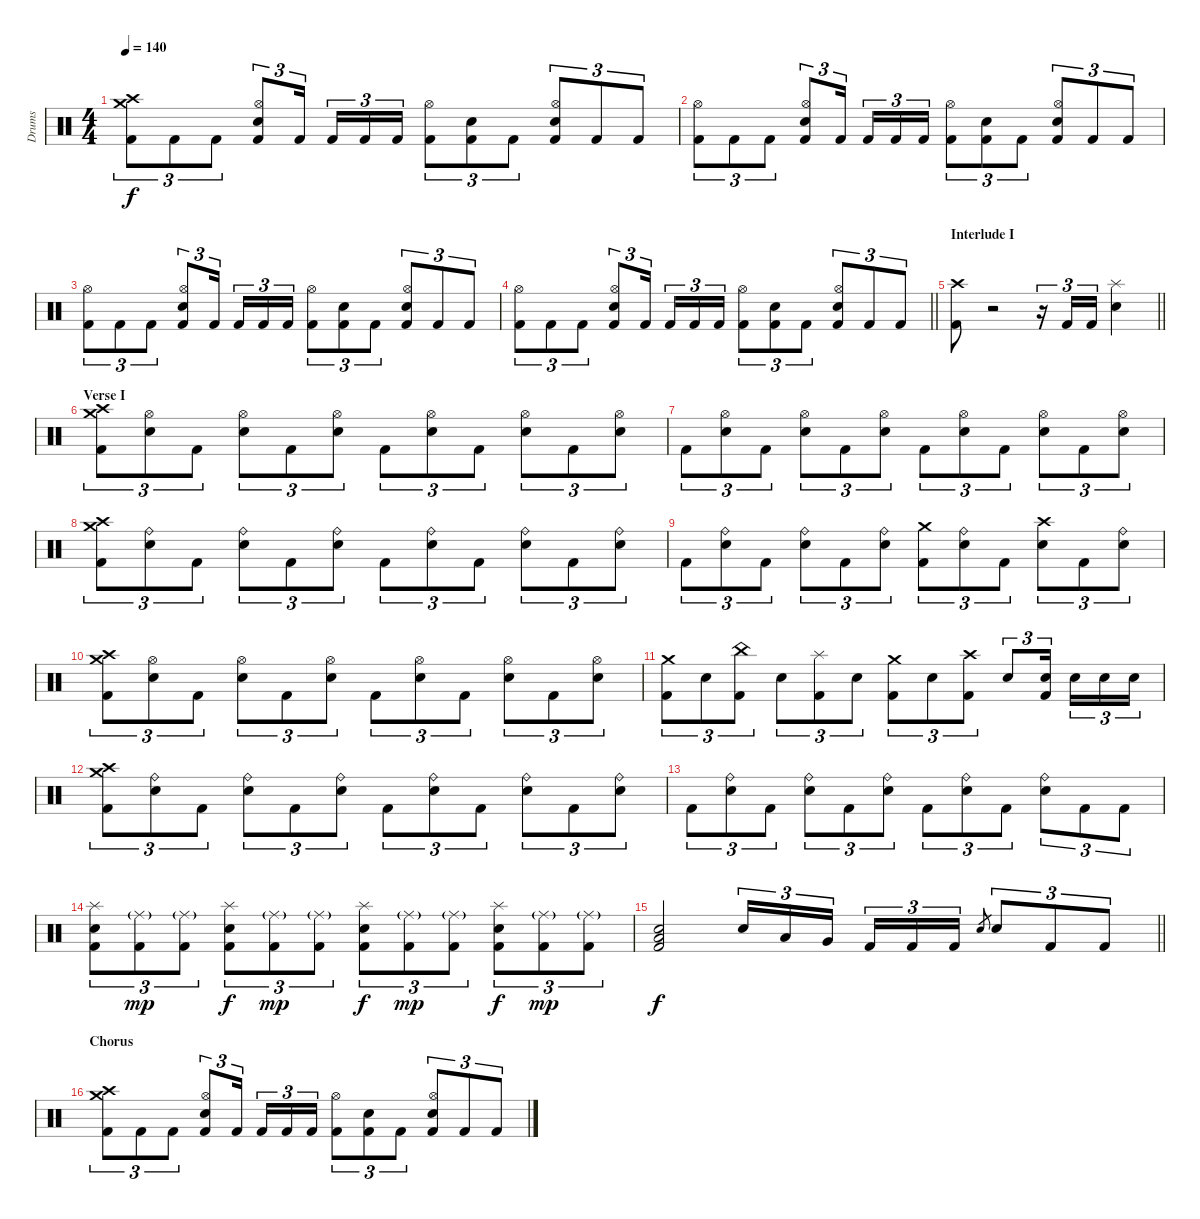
\track ("Drums" "Drums") {instrument percussion}
\staff {score}
\articulation defaults
\ts (4 4)
\tempo 140
\clef neutral
\ks c
("Crash medium (hit)" "Crash high (hit)" "Kick (hit) 2").8{tu (3 2) dy f} "Kick (hit) 2".8{tu (3 2)} "Kick (hit) 2".8{tu (3 2)} ("Hi-Hat (open)" "Electric Snare (hit)" "Kick (hit) 2").8{tu (3 2)} "Kick (hit) 2".16{tu (3 2) beam splitsecondary} "Kick (hit) 2".16{tu (3 2)} "Kick (hit) 2".16{tu (3 2)} "Kick (hit) 2".16{tu (3 2)} ("Hi-Hat (open)" "Kick (hit) 2").8{tu (3 2)} ("Electric Snare (hit)" "Kick (hit) 2").8{tu (3 2)} "Kick (hit) 2".8{tu (3 2)} ("Hi-Hat (open)" "Electric Snare (hit)" "Kick (hit) 2").8{tu (3 2)} "Kick (hit) 2".8{tu (3 2)} "Kick (hit) 2".8{tu (3 2)} |
("Hi-Hat (open)" "Kick (hit) 2").8{tu (3 2)} "Kick (hit) 2".8{tu (3 2)} "Kick (hit) 2".8{tu (3 2)} ("Hi-Hat (open)" "Electric Snare (hit)" "Kick (hit) 2").8{tu (3 2)} "Kick (hit) 2".16{tu (3 2) beam splitsecondary} "Kick (hit) 2".16{tu (3 2)} "Kick (hit) 2".16{tu (3 2)} "Kick (hit) 2".16{tu (3 2)} ("Hi-Hat (open)" "Kick (hit) 2").8{tu (3 2)} ("Electric Snare (hit)" "Kick (hit) 2").8{tu (3 2)} "Kick (hit) 2".8{tu (3 2)} ("Hi-Hat (open)" "Electric Snare (hit)" "Kick (hit) 2").8{tu (3 2)} "Kick (hit) 2".8{tu (3 2)} "Kick (hit) 2".8{tu (3 2)} |
("Hi-Hat (open)" "Kick (hit) 2").8{tu (3 2)} "Kick (hit) 2".8{tu (3 2)} "Kick (hit) 2".8{tu (3 2)} ("Hi-Hat (open)" "Electric Snare (hit)" "Kick (hit) 2").8{tu (3 2)} "Kick (hit) 2".16{tu (3 2) beam splitsecondary} "Kick (hit) 2".16{tu (3 2)} "Kick (hit) 2".16{tu (3 2)} "Kick (hit) 2".16{tu (3 2)} ("Hi-Hat (open)" "Kick (hit) 2").8{tu (3 2)} ("Electric Snare (hit)" "Kick (hit) 2").8{tu (3 2)} "Kick (hit) 2".8{tu (3 2)} ("Hi-Hat (open)" "Electric Snare (hit)" "Kick (hit) 2").8{tu (3 2)} "Kick (hit) 2".8{tu (3 2)} "Kick (hit) 2".8{tu (3 2)} |
\barLineRight lightlight
("Hi-Hat (open)" "Kick (hit) 2").8{tu (3 2)} "Kick (hit) 2".8{tu (3 2)} "Kick (hit) 2".8{tu (3 2)} ("Hi-Hat (open)" "Electric Snare (hit)" "Kick (hit) 2").8{tu (3 2)} "Kick (hit) 2".16{tu (3 2) beam splitsecondary} "Kick (hit) 2".16{tu (3 2)} "Kick (hit) 2".16{tu (3 2)} "Kick (hit) 2".16{tu (3 2)} ("Hi-Hat (open)" "Kick (hit) 2").8{tu (3 2)} ("Electric Snare (hit)" "Kick (hit) 2").8{tu (3 2)} "Kick (hit) 2".8{tu (3 2)} ("Hi-Hat (open)" "Electric Snare (hit)" "Kick (hit) 2").8{tu (3 2)} "Kick (hit) 2".8{tu (3 2)} "Kick (hit) 2".8{tu (3 2)} |
\section ("" "Interlude I")
\barLineRight lightlight
("Crash high (hit)" "Kick (hit) 2").8 r.2{volume 0} r.16{tu (3 2) volume 14} "Kick (hit) 2".16{tu (3 2)} "Kick (hit) 2".16{tu (3 2)} ("Splash (hit)" "Electric Snare (hit)").4 |
\section ("" "Verse I")
("Crash medium (hit)" "Crash high (hit)" "Kick (hit) 2").8{tu (3 2)} ("Hi-Hat (open)" "Electric Snare (hit)").8{tu (3 2)} "Kick (hit) 2".8{tu (3 2)} ("Hi-Hat (open)" "Electric Snare (hit)").8{tu (3 2)} "Kick (hit) 2".8{tu (3 2)} ("Hi-Hat (open)" "Electric Snare (hit)").8{tu (3 2)} "Kick (hit) 2".8{tu (3 2)} ("Hi-Hat (open)" "Electric Snare (hit)").8{tu (3 2)} "Kick (hit) 2".8{tu (3 2)} ("Hi-Hat (open)" "Electric Snare (hit)").8{tu (3 2)} "Kick (hit) 2".8{tu (3 2)} ("Hi-Hat (open)" "Electric Snare (hit)").8{tu (3 2)} |
"Kick (hit) 2".8{tu (3 2)} ("Hi-Hat (open)" "Electric Snare (hit)").8{tu (3 2)} "Kick (hit) 2".8{tu (3 2)} ("Hi-Hat (open)" "Electric Snare (hit)").8{tu (3 2)} "Kick (hit) 2".8{tu (3 2)} ("Hi-Hat (open)" "Electric Snare (hit)").8{tu (3 2)} "Kick (hit) 2".8{tu (3 2)} ("Hi-Hat (open)" "Electric Snare (hit)").8{tu (3 2)} "Kick (hit) 2".8{tu (3 2)} ("Hi-Hat (open)" "Electric Snare (hit)").8{tu (3 2)} "Kick (hit) 2".8{tu (3 2)} ("Hi-Hat (open)" "Electric Snare (hit)").8{tu (3 2)} |
("Crash medium (hit)" "Crash high (hit)" "Kick (hit) 2").8{tu (3 2)} ("Ride (bell)" "Electric Snare (hit)").8{tu (3 2)} "Kick (hit) 2".8{tu (3 2)} ("Ride (bell)" "Electric Snare (hit)").8{tu (3 2)} "Kick (hit) 2".8{tu (3 2)} ("Ride (bell)" "Electric Snare (hit)").8{tu (3 2)} "Kick (hit) 2".8{tu (3 2)} ("Ride (bell)" "Electric Snare (hit)").8{tu (3 2)} "Kick (hit) 2".8{tu (3 2)} ("Ride (bell)" "Electric Snare (hit)").8{tu (3 2)} "Kick (hit) 2".8{tu (3 2)} ("Ride (bell)" "Electric Snare (hit)").8{tu (3 2)} |
"Kick (hit) 2".8{tu (3 2)} ("Ride (bell)" "Electric Snare (hit)").8{tu (3 2)} "Kick (hit) 2".8{tu (3 2)} ("Ride (bell)" "Electric Snare (hit)").8{tu (3 2)} "Kick (hit) 2".8{tu (3 2)} ("Ride (bell)" "Electric Snare (hit)").8{tu (3 2)} ("Crash medium (hit)" "Kick (hit) 2").8{tu (3 2)} ("Ride (bell)" "Electric Snare (hit)").8{tu (3 2)} "Kick (hit) 2".8{tu (3 2)} ("Crash high (hit)" "Electric Snare (hit)").8{tu (3 2)} "Kick (hit) 2".8{tu (3 2)} ("Ride (bell)" "Electric Snare (hit)").8{tu (3 2)} |
("Crash medium (hit)" "Crash high (hit)" "Kick (hit) 2").8{tu (3 2)} ("Hi-Hat (open)" "Electric Snare (hit)").8{tu (3 2)} "Kick (hit) 2".8{tu (3 2)} ("Hi-Hat (open)" "Electric Snare (hit)").8{tu (3 2)} "Kick (hit) 2".8{tu (3 2)} ("Hi-Hat (open)" "Electric Snare (hit)").8{tu (3 2)} "Kick (hit) 2".8{tu (3 2)} ("Hi-Hat (open)" "Electric Snare (hit)").8{tu (3 2)} "Kick (hit) 2".8{tu (3 2)} ("Hi-Hat (open)" "Electric Snare (hit)").8{tu (3 2)} "Kick (hit) 2".8{tu (3 2)} ("Hi-Hat (open)" "Electric Snare (hit)").8{tu (3 2)} |
("Crash medium (hit)" "Kick (hit) 2").8{tu (3 2)} "Electric Snare (hit)".8{tu (3 2)} ("China (hit)" "Kick (hit) 2").8{tu (3 2)} "Electric Snare (hit)".8{tu (3 2)} ("Splash (hit)" "Kick (hit) 2").8{tu (3 2)} "Electric Snare (hit)".8{tu (3 2)} ("Crash medium (hit)" "Kick (hit) 2").8{tu (3 2)} "Electric Snare (hit)".8{tu (3 2)} ("Crash high (hit)" "Kick (hit) 2").8{tu (3 2)} "Electric Snare (hit)".8{tu (3 2)} ("Electric Snare (hit)" "Kick (hit) 2").16{tu (3 2) beam splitsecondary} "Electric Snare (hit)".16{tu (3 2)} "Electric Snare (hit)".16{tu (3 2)} "Electric Snare (hit)".16{tu (3 2)} |
("Crash medium (hit)" "Crash high (hit)" "Kick (hit) 2").8{tu (3 2)} ("Ride (bell)" "Electric Snare (hit)").8{tu (3 2)} "Kick (hit) 2".8{tu (3 2)} ("Ride (bell)" "Electric Snare (hit)").8{tu (3 2)} "Kick (hit) 2".8{tu (3 2)} ("Ride (bell)" "Electric Snare (hit)").8{tu (3 2)} "Kick (hit) 2".8{tu (3 2)} ("Ride (bell)" "Electric Snare (hit)").8{tu (3 2)} "Kick (hit) 2".8{tu (3 2)} ("Ride (bell)" "Electric Snare (hit)").8{tu (3 2)} "Kick (hit) 2".8{tu (3 2)} ("Ride (bell)" "Electric Snare (hit)").8{tu (3 2)} |
"Kick (hit) 2".8{tu (3 2)} ("Ride (bell)" "Electric Snare (hit)").8{tu (3 2)} "Kick (hit) 2".8{tu (3 2)} ("Ride (bell)" "Electric Snare (hit)").8{tu (3 2)} "Kick (hit) 2".8{tu (3 2)} ("Ride (bell)" "Electric Snare (hit)").8{tu (3 2)} "Kick (hit) 2".8{tu (3 2)} ("Ride (bell)" "Electric Snare (hit)").8{tu (3 2)} "Kick (hit) 2".8{tu (3 2)} ("Ride (bell)" "Electric Snare (hit)").8{tu (3 2)} "Kick (hit) 2".8{tu (3 2)} "Kick (hit) 2".8{tu (3 2)} |
("Splash (hit)" "Electric Snare (hit)" "Kick (hit) 2").8{tu (3 2)} ("Ride (middle)"{g} "Kick (hit) 2").8{tu (3 2) dy mp} ("Ride (middle)"{g} "Kick (hit) 2").8{tu (3 2)} ("Splash (hit)" "Electric Snare (hit)" "Kick (hit) 2").8{tu (3 2) dy f} ("Ride (middle)"{g} "Kick (hit) 2").8{tu (3 2) dy mp} ("Ride (middle)"{g} "Kick (hit) 2").8{tu (3 2)} ("Splash (hit)" "Electric Snare (hit)" "Kick (hit) 2").8{tu (3 2) dy f} ("Ride (middle)"{g} "Kick (hit) 2").8{tu (3 2) dy mp} ("Ride (middle)"{g} "Kick (hit) 2").8{tu (3 2)} ("Splash (hit)" "Electric Snare (hit)" "Kick (hit) 2").8{tu (3 2) dy f} ("Ride (middle)"{g} "Kick (hit) 2").8{tu (3 2) dy mp} ("Ride (middle)"{g} "Kick (hit) 2").8{tu (3 2)} |
\barLineRight lightlight
("Electric Snare (hit)" "Low Floor Tom (hit)" "Kick (hit) 2").2{dy f} "Electric Snare (hit)".16{tu (3 2)} "Low Tom (hit)".16{tu (3 2)} "Very Low Tom (hit)".16{tu (3 2) beam splitsecondary} "Kick (hit) 2".16{tu (3 2)} "Kick (hit) 2".16{tu (3 2)} "Kick (hit) 2".16{tu (3 2)} "Electric Snare (hit)".8{gr} "Electric Snare (hit)".8{tu (3 2)} "Kick (hit) 2".8{tu (3 2)} "Kick (hit) 2".8{tu (3 2)} |
\section ("" "Chorus")
("Crash medium (hit)" "Crash high (hit)" "Kick (hit) 2").8{tu (3 2)} "Kick (hit) 2".8{tu (3 2)} "Kick (hit) 2".8{tu (3 2)} ("Hi-Hat (open)" "Electric Snare (hit)" "Kick (hit) 2").8{tu (3 2)} "Kick (hit) 2".16{tu (3 2) beam splitsecondary} "Kick (hit) 2".16{tu (3 2)} "Kick (hit) 2".16{tu (3 2)} "Kick (hit) 2".16{tu (3 2)} ("Hi-Hat (open)" "Kick (hit) 2").8{tu (3 2)} ("Electric Snare (hit)" "Kick (hit) 2").8{tu (3 2)} "Kick (hit) 2".8{tu (3 2)} ("Hi-Hat (open)" "Electric Snare (hit)" "Kick (hit) 2").8{tu (3 2)} "Kick (hit) 2".8{tu (3 2)} "Kick (hit) 2".8{tu (3 2)}
